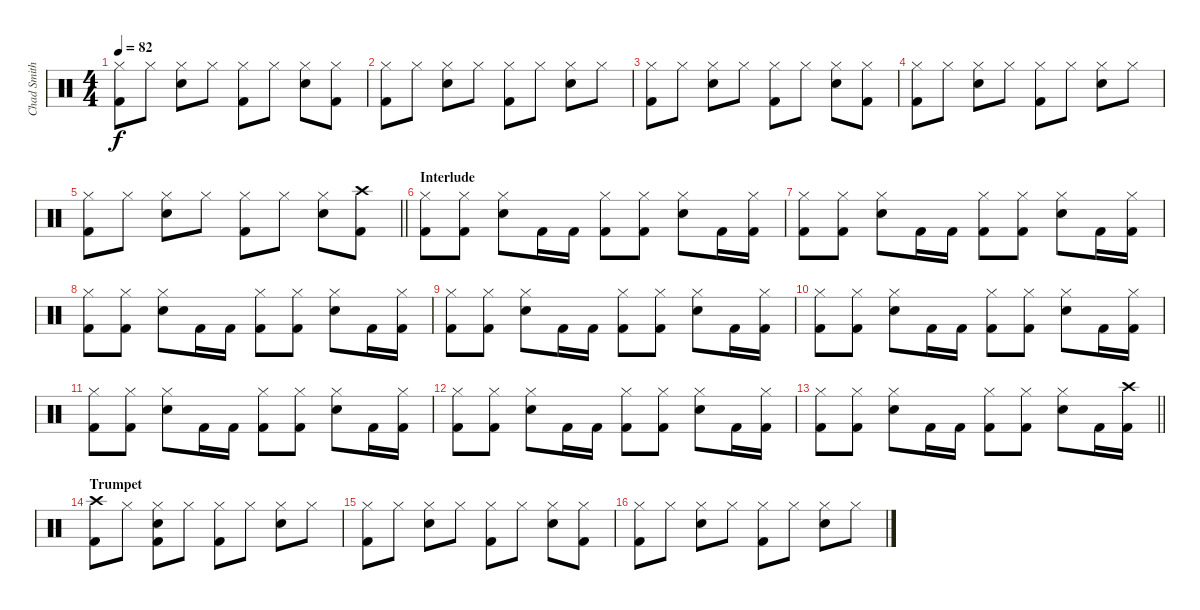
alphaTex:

\track ("Chad Smith Drum" "Chad Smith") {instrument percussion}
\staff {score}
\articulation defaults
\ts (4 4)
\tempo 82
\clef neutral
\ks c
("Kick (hit) 2" "Hi-Hat (closed)").8{dy f} "Hi-Hat (closed)".8 ("Snare (hit) 2" "Hi-Hat (closed)").8 "Hi-Hat (closed)".8 ("Kick (hit) 2" "Hi-Hat (closed)").8 "Hi-Hat (closed)".8 ("Snare (hit) 2" "Hi-Hat (closed)").8 ("Kick (hit) 2" "Hi-Hat (closed)").8 |
("Kick (hit) 2" "Hi-Hat (closed)").8 "Hi-Hat (closed)".8 ("Snare (hit) 2" "Hi-Hat (closed)").8 "Hi-Hat (closed)".8 ("Kick (hit) 2" "Hi-Hat (closed)").8 "Hi-Hat (closed)".8 ("Snare (hit) 2" "Hi-Hat (closed)").8 "Hi-Hat (closed)".8 |
("Kick (hit) 2" "Hi-Hat (closed)").8 "Hi-Hat (closed)".8 ("Snare (hit) 2" "Hi-Hat (closed)").8 "Hi-Hat (closed)".8 ("Kick (hit) 2" "Hi-Hat (closed)").8 "Hi-Hat (closed)".8 ("Snare (hit) 2" "Hi-Hat (closed)").8 ("Kick (hit) 2" "Hi-Hat (closed)").8 |
("Kick (hit) 2" "Hi-Hat (closed)").8 "Hi-Hat (closed)".8 ("Snare (hit) 2" "Hi-Hat (closed)").8 "Hi-Hat (closed)".8 ("Kick (hit) 2" "Hi-Hat (closed)").8 "Hi-Hat (closed)".8 ("Snare (hit) 2" "Hi-Hat (closed)").8 "Hi-Hat (closed)".8 |
\barLineRight lightlight
("Kick (hit) 2" "Hi-Hat (closed)").8 "Hi-Hat (closed)".8 ("Snare (hit) 2" "Hi-Hat (closed)").8 "Hi-Hat (closed)".8 ("Kick (hit) 2" "Hi-Hat (closed)").8 "Hi-Hat (closed)".8 ("Snare (hit) 2" "Hi-Hat (closed)").8 ("Kick (hit) 2" "Crash high (hit)").8 |
\section ("" "Interlude")
("Kick (hit) 2" "Hi-Hat (closed)").8 ("Kick (hit) 2" "Hi-Hat (closed)").8 ("Snare (hit) 2" "Hi-Hat (closed)").8 "Kick (hit) 2".16 "Kick (hit) 2".16 ("Kick (hit) 2" "Hi-Hat (closed)").8 ("Kick (hit) 2" "Hi-Hat (closed)").8 ("Snare (hit) 2" "Hi-Hat (closed)").8 "Kick (hit) 2".16 ("Kick (hit) 2" "Hi-Hat (closed)").16 |
("Kick (hit) 2" "Hi-Hat (closed)").8 ("Kick (hit) 2" "Hi-Hat (closed)").8 ("Snare (hit) 2" "Hi-Hat (closed)").8 "Kick (hit) 2".16 "Kick (hit) 2".16 ("Kick (hit) 2" "Hi-Hat (closed)").8 ("Kick (hit) 2" "Hi-Hat (closed)").8 ("Snare (hit) 2" "Hi-Hat (closed)").8 "Kick (hit) 2".16 ("Kick (hit) 2" "Hi-Hat (closed)").16 |
("Kick (hit) 2" "Hi-Hat (closed)").8 ("Kick (hit) 2" "Hi-Hat (closed)").8 ("Snare (hit) 2" "Hi-Hat (closed)").8 "Kick (hit) 2".16 "Kick (hit) 2".16 ("Kick (hit) 2" "Hi-Hat (closed)").8 ("Kick (hit) 2" "Hi-Hat (closed)").8 ("Snare (hit) 2" "Hi-Hat (closed)").8 "Kick (hit) 2".16 ("Kick (hit) 2" "Hi-Hat (closed)").16 |
("Kick (hit) 2" "Hi-Hat (closed)").8 ("Kick (hit) 2" "Hi-Hat (closed)").8 ("Snare (hit) 2" "Hi-Hat (closed)").8 "Kick (hit) 2".16 "Kick (hit) 2".16 ("Kick (hit) 2" "Hi-Hat (closed)").8 ("Kick (hit) 2" "Hi-Hat (closed)").8 ("Snare (hit) 2" "Hi-Hat (closed)").8 "Kick (hit) 2".16 ("Kick (hit) 2" "Hi-Hat (closed)").16 |
("Kick (hit) 2" "Hi-Hat (closed)").8 ("Kick (hit) 2" "Hi-Hat (closed)").8 ("Snare (hit) 2" "Hi-Hat (closed)").8 "Kick (hit) 2".16 "Kick (hit) 2".16 ("Kick (hit) 2" "Hi-Hat (closed)").8 ("Kick (hit) 2" "Hi-Hat (closed)").8 ("Snare (hit) 2" "Hi-Hat (closed)").8 "Kick (hit) 2".16 ("Kick (hit) 2" "Hi-Hat (closed)").16 |
("Kick (hit) 2" "Hi-Hat (closed)").8 ("Kick (hit) 2" "Hi-Hat (closed)").8 ("Snare (hit) 2" "Hi-Hat (closed)").8 "Kick (hit) 2".16 "Kick (hit) 2".16 ("Kick (hit) 2" "Hi-Hat (closed)").8 ("Kick (hit) 2" "Hi-Hat (closed)").8 ("Snare (hit) 2" "Hi-Hat (closed)").8 "Kick (hit) 2".16 ("Kick (hit) 2" "Hi-Hat (closed)").16 |
("Kick (hit) 2" "Hi-Hat (closed)").8 ("Kick (hit) 2" "Hi-Hat (closed)").8 ("Snare (hit) 2" "Hi-Hat (closed)").8 "Kick (hit) 2".16 "Kick (hit) 2".16 ("Kick (hit) 2" "Hi-Hat (closed)").8 ("Kick (hit) 2" "Hi-Hat (closed)").8 ("Snare (hit) 2" "Hi-Hat (closed)").8 "Kick (hit) 2".16 ("Kick (hit) 2" "Hi-Hat (closed)").16 |
\barLineRight lightlight
("Kick (hit) 2" "Hi-Hat (closed)").8 ("Kick (hit) 2" "Hi-Hat (closed)").8 ("Snare (hit) 2" "Hi-Hat (closed)").8 "Kick (hit) 2".16 "Kick (hit) 2".16 ("Kick (hit) 2" "Hi-Hat (closed)").8 ("Kick (hit) 2" "Hi-Hat (closed)").8 ("Snare (hit) 2" "Hi-Hat (closed)").8 "Kick (hit) 2".16 ("Kick (hit) 2" "Crash high (hit)").16 |
\section ("" "Trumpet")
("Crash high (hit)" "Kick (hit) 2").8 "Hi-Hat (closed)".8 ("Kick (hit) 2" "Hi-Hat (closed)" "Snare (hit) 2").8 "Hi-Hat (closed)".8 ("Kick (hit) 2" "Hi-Hat (closed)").8 "Hi-Hat (closed)".8 ("Snare (hit) 2" "Hi-Hat (closed)").8 "Hi-Hat (closed)".8 |
("Kick (hit) 2" "Hi-Hat (closed)").8 "Hi-Hat (closed)".8 ("Snare (hit) 2" "Hi-Hat (closed)").8 "Hi-Hat (closed)".8 ("Kick (hit) 2" "Hi-Hat (closed)").8 "Hi-Hat (closed)".8 ("Snare (hit) 2" "Hi-Hat (closed)").8 ("Kick (hit) 2" "Hi-Hat (closed)").8 |
("Kick (hit) 2" "Hi-Hat (closed)").8 "Hi-Hat (closed)".8 ("Snare (hit) 2" "Hi-Hat (closed)").8 "Hi-Hat (closed)".8 ("Kick (hit) 2" "Hi-Hat (closed)").8 "Hi-Hat (closed)".8 ("Snare (hit) 2" "Hi-Hat (closed)").8 "Hi-Hat (closed)".8
